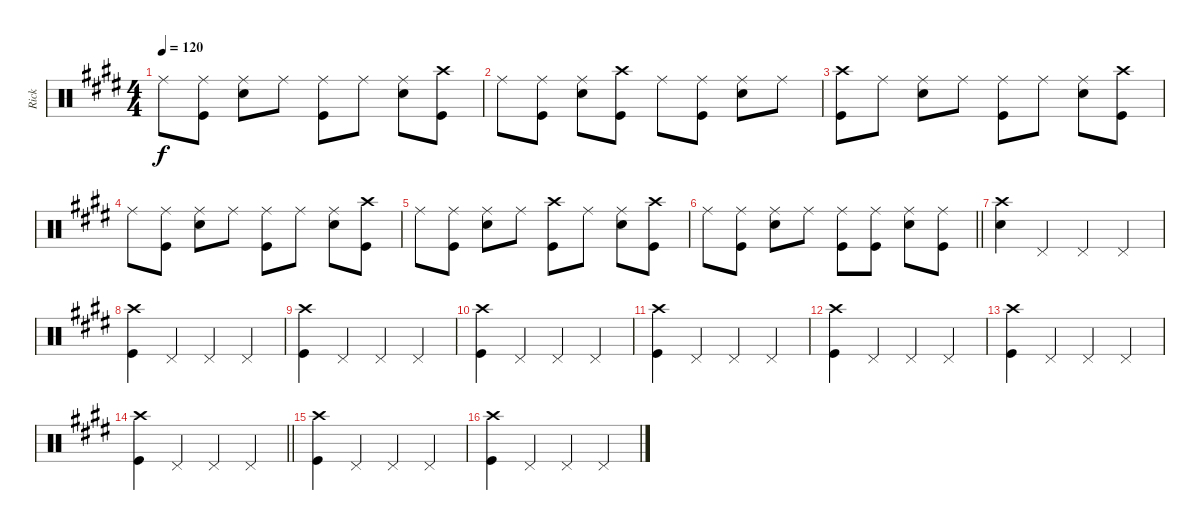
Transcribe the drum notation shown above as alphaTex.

\track ("Rick" "Rick") {instrument percussion}
\staff {score}
\articulation defaults
\ts (4 4)
\tempo 120
\clef neutral
\ks c#minor "Ride (middle)".8{dy f}
("Ride (middle)" "Kick (hit)").8 ("Ride (middle)" "Snare (hit) 2").8 "Ride (middle)".8 ("Ride (middle)" "Kick (hit)").8 "Ride (middle)".8 ("Ride (middle)" "Snare (hit) 2").8 ("Crash high (hit)" "Kick (hit)").8 |
"Ride (middle)".8 ("Ride (middle)" "Kick (hit)").8 ("Ride (middle)" "Snare (hit) 2").8 ("Crash high (hit)" "Kick (hit)").8 "Ride (middle)".8 ("Ride (middle)" "Kick (hit)").8 ("Ride (middle)" "Snare (hit) 2").8 "Ride (middle)".8 |
("Crash high (hit)" "Kick (hit)").8 "Ride (middle)".8 ("Ride (middle)" "Snare (hit) 2").8 "Ride (middle)".8 ("Ride (middle)" "Kick (hit)").8 "Ride (middle)".8 ("Ride (middle)" "Snare (hit) 2").8 ("Crash high (hit)" "Kick (hit)").8 |
"Ride (middle)".8 ("Ride (middle)" "Kick (hit)").8 ("Ride (middle)" "Snare (hit) 2").8 "Ride (middle)".8 ("Ride (middle)" "Kick (hit)").8 "Ride (middle)".8 ("Ride (middle)" "Snare (hit) 2").8 ("Crash high (hit)" "Kick (hit)").8 |
"Ride (middle)".8 ("Ride (middle)" "Kick (hit)").8 ("Ride (middle)" "Snare (hit) 2").8 "Ride (middle)".8 ("Crash high (hit)" "Kick (hit)").8 "Ride (middle)".8 ("Ride (middle)" "Snare (hit) 2").8 ("Crash high (hit)" "Kick (hit)").8 |
\barLineRight lightlight "Ride (middle)".8
("Ride (middle)" "Kick (hit)").8 ("Ride (middle)" "Snare (hit) 2").8 "Ride (middle)".8 ("Ride (middle)" "Kick (hit)").8 ("Ride (middle)" "Kick (hit)").8 ("Ride (middle)" "Snare (hit) 2").8 ("Ride (middle)" "Kick (hit)").8 |
("Crash high (hit)" "Snare (hit) 2").4 "Pedal Hi-Hat (hit)".4 "Pedal Hi-Hat (hit)".4 "Pedal Hi-Hat (hit)".4 |
("Crash high (hit)" "Kick (hit)").4 "Pedal Hi-Hat (hit)".4 "Pedal Hi-Hat (hit)".4 "Pedal Hi-Hat (hit)".4 |
("Crash high (hit)" "Kick (hit)").4 "Pedal Hi-Hat (hit)".4 "Pedal Hi-Hat (hit)".4 "Pedal Hi-Hat (hit)".4 |
("Crash high (hit)" "Kick (hit)").4 "Pedal Hi-Hat (hit)".4 "Pedal Hi-Hat (hit)".4 "Pedal Hi-Hat (hit)".4 |
("Crash high (hit)" "Kick (hit)").4 "Pedal Hi-Hat (hit)".4 "Pedal Hi-Hat (hit)".4 "Pedal Hi-Hat (hit)".4 |
("Crash high (hit)" "Kick (hit)").4 "Pedal Hi-Hat (hit)".4 "Pedal Hi-Hat (hit)".4 "Pedal Hi-Hat (hit)".4 |
("Crash high (hit)" "Kick (hit)").4 "Pedal Hi-Hat (hit)".4 "Pedal Hi-Hat (hit)".4 "Pedal Hi-Hat (hit)".4 |
\barLineRight lightlight
("Crash high (hit)" "Kick (hit)").4 "Pedal Hi-Hat (hit)".4 "Pedal Hi-Hat (hit)".4 "Pedal Hi-Hat (hit)".4 |
("Crash high (hit)" "Kick (hit)").4 "Pedal Hi-Hat (hit)".4 "Pedal Hi-Hat (hit)".4 "Pedal Hi-Hat (hit)".4 |
("Crash high (hit)" "Kick (hit)").4 "Pedal Hi-Hat (hit)".4 "Pedal Hi-Hat (hit)".4 "Pedal Hi-Hat (hit)".4
